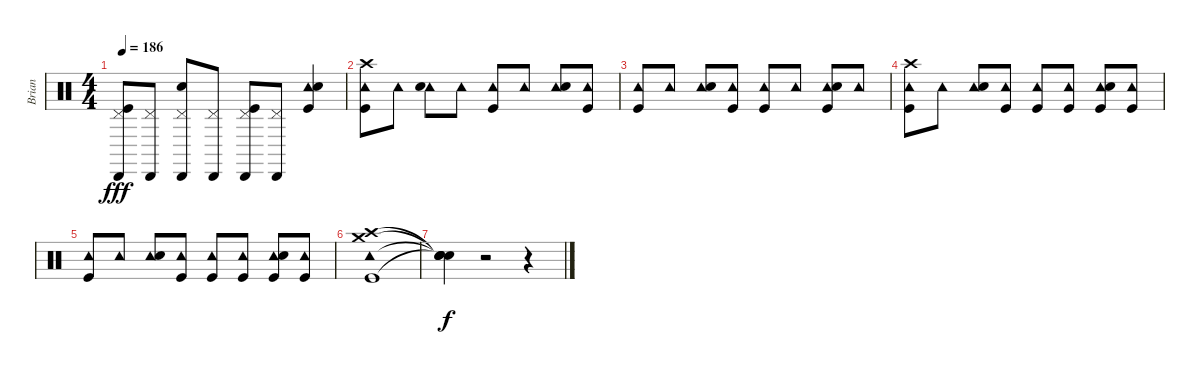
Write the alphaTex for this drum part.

\track ("Brian" "Brian") {instrument percussion}
\staff {score}
\articulation defaults
\ts (4 4)
\tempo 186
\clef neutral
\ks c
("Cabasa (hit)" "Pedal Hi-Hat (hit)" "Kick (hit)").8{dy fff} ("Cabasa (hit)" "Pedal Hi-Hat (hit)").8 ("Cabasa (hit)" "Pedal Hi-Hat (hit)" "Snare (hit) 2").8 ("Cabasa (hit)" "Pedal Hi-Hat (hit)").8 ("Cabasa (hit)" "Pedal Hi-Hat (hit)" "Kick (hit)").8 ("Cabasa (hit)" "Pedal Hi-Hat (hit)").8 ("Tambourine (hit)" "Snare (hit) 2" "Kick (hit)").4 |
("Tambourine (hit)" "Crash high (hit)" "Kick (hit)").8 "Tambourine (hit)".8 ("Tambourine (hit)" "Snare (hit) 2").8 "Tambourine (hit)".8 ("Tambourine (hit)" "Kick (hit)").8 "Tambourine (hit)".8 ("Tambourine (hit)" "Snare (hit) 2").8 ("Tambourine (hit)" "Kick (hit)").8 |
("Tambourine (hit)" "Kick (hit)").8 "Tambourine (hit)".8 ("Tambourine (hit)" "Snare (hit) 2").8 ("Tambourine (hit)" "Kick (hit)").8 ("Tambourine (hit)" "Kick (hit)").8 "Tambourine (hit)".8 ("Tambourine (hit)" "Snare (hit) 2" "Kick (hit)").8 "Tambourine (hit)".8 |
("Tambourine (hit)" "Crash high (hit)" "Kick (hit)").8 "Tambourine (hit)".8 ("Tambourine (hit)" "Snare (hit) 2").8 ("Tambourine (hit)" "Kick (hit)").8 ("Tambourine (hit)" "Kick (hit)").8 ("Tambourine (hit)" "Kick (hit)").8 ("Tambourine (hit)" "Snare (hit) 2" "Kick (hit)").8 ("Tambourine (hit)" "Kick (hit)").8 |
("Tambourine (hit)" "Kick (hit)").8 "Tambourine (hit)".8 ("Tambourine (hit)" "Snare (hit) 2").8 ("Tambourine (hit)" "Kick (hit)").8 ("Tambourine (hit)" "Kick (hit)").8 ("Tambourine (hit)" "Kick (hit)").8 ("Tambourine (hit)" "Snare (hit) 2" "Kick (hit)").8 ("Tambourine (hit)" "Kick (hit)").8 |
("Crash medium (hit)" "Tambourine (hit)" "Crash high (hit)" "Kick (hit)").1 |
("Snare (hit)"{t} "Snare (hit)"{t} "Snare (hit)"{t} "Snare (hit)"{t}).4{dy f} r.2 r.4
